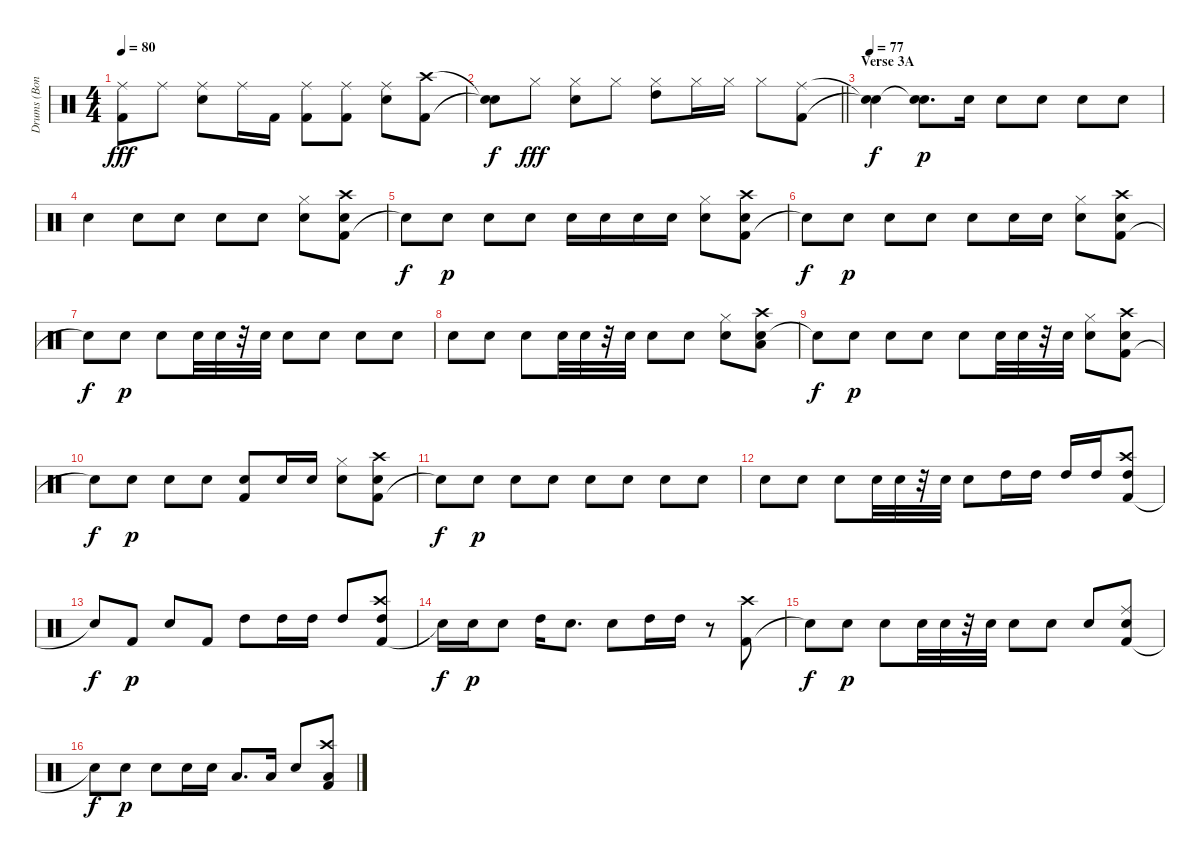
\track ("Drums (Bonham)" "Drums (Bon") {instrument percussion}
\staff {score}
\articulation defaults
\ts (4 4)
\tempo 80
\clef neutral
\ks c
("Kick (hit) 2" "Ride (middle)").8{dy fff} "Ride (middle)".8 ("Snare (hit) 2" "Ride (middle)").8 "Ride (middle)".16 "Kick (hit) 2".16 ("Kick (hit) 2" "Ride (middle)").8 ("Kick (hit) 2" "Ride (middle)").8 ("Snare (hit) 2" "Ride (middle)").8 ("Kick (hit) 2" "Crash high (hit)").8 |
\barLineRight lightlight
("Snare (hit)"{t} "Snare (hit)"{t}).8{dy f} "Hi-Hat (closed)".8{dy fff} ("Snare (hit) 2" "Hi-Hat (closed)").8 "Hi-Hat (closed)".8 ("Hi-Hat (closed)" "High Tom (hit)").8 "Hi-Hat (closed)".16 "Hi-Hat (closed)".16 "Hi-Hat (closed)".8 ("Kick (hit) 2" "Ride (middle)").8 |
\section ("" "Verse 3A")
\tempo 77
("Snare (hit)"{t} "Snare (hit)"{t}).4{dy f} ("Snare (hit) 2" "Snare (hit)"{t}).8{d dy p} "Snare (hit) 2".16 "Snare (hit) 2".8 "Snare (hit) 2".8 "Snare (hit) 2".8 "Snare (hit) 2".8 |
"Snare (hit) 2".4 "Snare (hit) 2".8 "Snare (hit) 2".8 "Snare (hit) 2".8 "Snare (hit) 2".8 ("Snare (hit) 2" "Hi-Hat (closed)").8 ("Kick (hit) 2" "Snare (hit) 2" "Crash high (hit)").8 |
"Snare (hit)"{t}.8{dy f} "Snare (hit) 2".8{dy p} "Snare (hit) 2".8 "Snare (hit) 2".8 "Snare (hit) 2".16 "Snare (hit) 2".16 "Snare (hit) 2".16 "Snare (hit) 2".16 ("Snare (hit) 2" "Hi-Hat (closed)").8 ("Kick (hit) 2" "Snare (hit) 2" "Crash high (hit)").8 |
"Snare (hit)"{t}.8{dy f} "Snare (hit) 2".8{dy p} "Snare (hit) 2".8 "Snare (hit) 2".8 "Snare (hit) 2".8 "Snare (hit) 2".16 "Snare (hit) 2".16 ("Snare (hit) 2" "Hi-Hat (closed)").8 ("Kick (hit) 2" "Snare (hit) 2" "Crash high (hit)").8 |
"Snare (hit)"{t}.8{dy f} "Snare (hit) 2".8{dy p} "Snare (hit) 2".8 "Snare (hit) 2".32 "Snare (hit) 2".32 r.32 "Snare (hit) 2".32 "Snare (hit) 2".8 "Snare (hit) 2".8 "Snare (hit) 2".8 "Snare (hit) 2".8 |
"Snare (hit) 2".8 "Snare (hit) 2".8 "Snare (hit) 2".8 "Snare (hit) 2".32 "Snare (hit) 2".32 r.32 "Snare (hit) 2".32 "Snare (hit) 2".8 "Snare (hit) 2".8 ("Snare (hit) 2" "Hi-Hat (closed)").8 ("Snare (hit) 2" "Low Tom (hit)" "Crash high (hit)").8 |
"Snare (hit)"{t}.8{dy f} "Snare (hit) 2".8{dy p} "Snare (hit) 2".8 "Snare (hit) 2".8 "Snare (hit) 2".8 "Snare (hit) 2".32 "Snare (hit) 2".32 r.32 "Snare (hit) 2".32 ("Snare (hit) 2" "Hi-Hat (closed)").8 ("Kick (hit) 2" "Snare (hit) 2" "Crash high (hit)").8 |
"Snare (hit)"{t}.8{dy f} "Snare (hit) 2".8{dy p} "Snare (hit) 2".8 "Snare (hit) 2".8 ("Kick (hit) 2" "Snare (hit) 2").8 "Snare (hit) 2".16 "Snare (hit) 2".16 ("Snare (hit) 2" "Hi-Hat (closed)").8 ("Kick (hit) 2" "Snare (hit) 2" "Crash high (hit)").8 |
"Snare (hit)"{t}.8{dy f} "Snare (hit) 2".8{dy p} "Snare (hit) 2".8 "Snare (hit) 2".8 "Snare (hit) 2".8 "Snare (hit) 2".8 "Snare (hit) 2".8 "Snare (hit) 2".8 |
"Snare (hit) 2".8 "Snare (hit) 2".8 "Snare (hit) 2".8 "Snare (hit) 2".32 "Snare (hit) 2".32 r.32 "Snare (hit) 2".32 "Snare (hit) 2".8 "High Tom (hit)".16 "High Tom (hit)".16 "High Tom (hit)".16 "High Tom (hit)".16 ("Kick (hit) 2" "High Tom (hit)" "Crash high (hit)").8 |
"Snare (hit)"{t}.8{dy f} "Kick (hit) 2".8{dy p} "Snare (hit) 2".8 "Kick (hit) 2".8 "High Tom (hit)".8 "High Tom (hit)".16 "High Tom (hit)".16 "High Tom (hit)".8 ("Kick (hit) 2" "High Tom (hit)" "Crash high (hit)").8 |
"Snare (hit)"{t}.16{dy f} "Snare (hit) 2".16{dy p} "Snare (hit) 2".8 "High Tom (hit)".16 "Snare (hit) 2".8{d} "Snare (hit) 2".8 "High Tom (hit)".16 "High Tom (hit)".16 r.8 ("Kick (hit) 2" "Crash high (hit)").8 |
"Snare (hit)"{t}.8{dy f} "Snare (hit) 2".8{dy p} "Snare (hit) 2".8 "Snare (hit) 2".32 "Snare (hit) 2".32 r.32 "Snare (hit) 2".32 "Snare (hit) 2".8 "Snare (hit) 2".8 "Snare (hit) 2".8 ("Kick (hit) 2" "Snare (hit) 2" "Ride (middle)").8 |
"Snare (hit)"{t}.8{dy f} "Snare (hit) 2".8{dy p} "Snare (hit) 2".8 "Snare (hit) 2".16 "Snare (hit) 2".16 "Low Tom (hit)".8{d} "Low Tom (hit)".16 "Snare (hit) 2".8 ("Kick (hit) 2" "Low Tom (hit)" "Crash high (hit)").8
